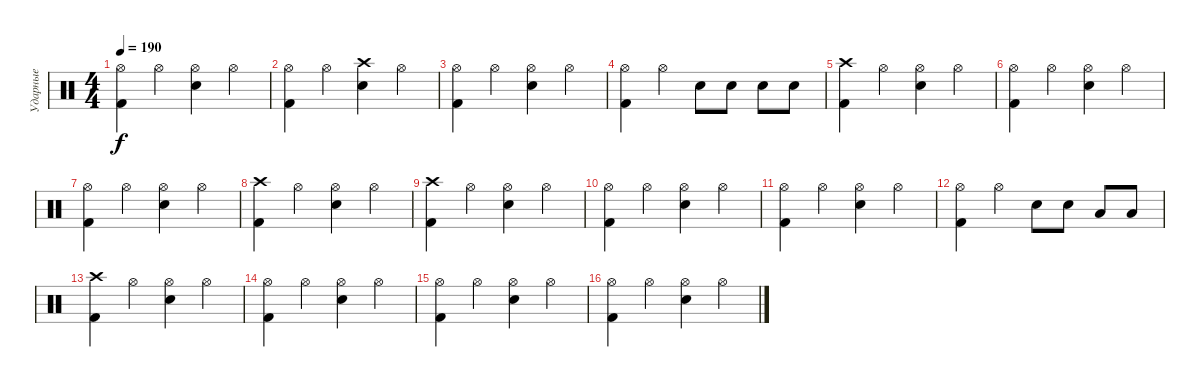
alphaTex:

\track ("Ударные" "Ударные") {instrument percussion}
\staff {score}
\articulation defaults
\ts (4 4)
\tempo 190
\clef neutral
\ks c
("Hi-Hat (open)" "Kick (hit) 2").4{dy f} "Hi-Hat (open)".4 ("Hi-Hat (open)" "Electric Snare (hit)").4 "Hi-Hat (open)".4 |
("Hi-Hat (open)" "Kick (hit) 2").4 "Hi-Hat (open)".4 ("Crash high (hit)" "Electric Snare (hit)").4 "Hi-Hat (open)".4 |
("Hi-Hat (open)" "Kick (hit) 2").4 "Hi-Hat (open)".4 ("Hi-Hat (open)" "Electric Snare (hit)").4 "Hi-Hat (open)".4 |
("Hi-Hat (open)" "Kick (hit) 2").4 "Hi-Hat (open)".4 "Electric Snare (hit)".8 "Electric Snare (hit)".8 "Electric Snare (hit)".8 "Electric Snare (hit)".8 |
("Crash high (hit)" "Kick (hit) 2").4 "Hi-Hat (open)".4 ("Hi-Hat (open)" "Electric Snare (hit)").4 "Hi-Hat (open)".4 |
("Hi-Hat (open)" "Kick (hit) 2").4 "Hi-Hat (open)".4 ("Hi-Hat (open)" "Electric Snare (hit)").4 "Hi-Hat (open)".4 |
("Hi-Hat (open)" "Kick (hit) 2").4 "Hi-Hat (open)".4 ("Hi-Hat (open)" "Electric Snare (hit)").4 "Hi-Hat (open)".4 |
("Crash high (hit)" "Kick (hit) 2").4 "Hi-Hat (open)".4 ("Hi-Hat (open)" "Electric Snare (hit)").4 "Hi-Hat (open)".4 |
("Crash high (hit)" "Kick (hit) 2").4 "Hi-Hat (open)".4 ("Hi-Hat (open)" "Electric Snare (hit)").4 "Hi-Hat (open)".4 |
("Hi-Hat (open)" "Kick (hit) 2").4 "Hi-Hat (open)".4 ("Hi-Hat (open)" "Electric Snare (hit)").4 "Hi-Hat (open)".4 |
("Hi-Hat (open)" "Kick (hit) 2").4 "Hi-Hat (open)".4 ("Hi-Hat (open)" "Electric Snare (hit)").4 "Hi-Hat (open)".4 |
("Hi-Hat (open)" "Kick (hit) 2").4 "Hi-Hat (open)".4 "Electric Snare (hit)".8 "Electric Snare (hit)".8 "Low Tom (hit)".8 "Low Tom (hit)".8 |
("Crash high (hit)" "Kick (hit) 2").4 "Hi-Hat (open)".4 ("Hi-Hat (open)" "Electric Snare (hit)").4 "Hi-Hat (open)".4 |
("Hi-Hat (open)" "Kick (hit) 2").4 "Hi-Hat (open)".4 ("Hi-Hat (open)" "Electric Snare (hit)").4 "Hi-Hat (open)".4 |
("Hi-Hat (open)" "Kick (hit) 2").4 "Hi-Hat (open)".4 ("Hi-Hat (open)" "Electric Snare (hit)").4 "Hi-Hat (open)".4 |
("Hi-Hat (open)" "Kick (hit) 2").4 "Hi-Hat (open)".4 ("Hi-Hat (open)" "Electric Snare (hit)").4 "Hi-Hat (open)".4
